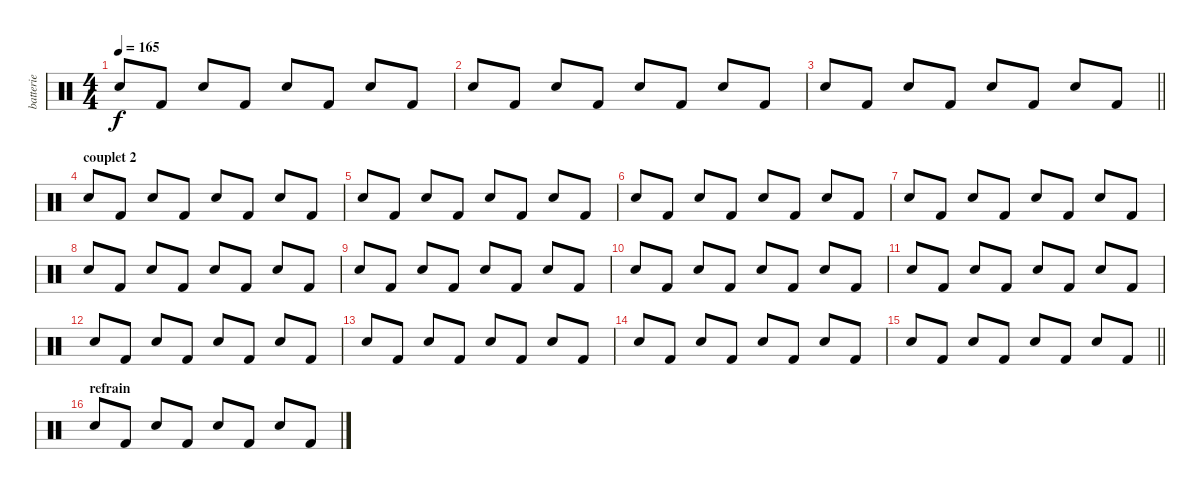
\track ("batterie" "batterie") {instrument percussion}
\staff {score}
\articulation defaults
\ts (4 4)
\tempo 165
\clef neutral
\ks c "Snare (hit) 2".8{dy f} "Kick (hit) 2".8 "Snare (hit) 2".8 "Kick (hit) 2".8 "Snare (hit) 2".8 "Kick (hit) 2".8 "Snare (hit) 2".8 "Kick (hit) 2".8
|
"Snare (hit) 2".8 "Kick (hit) 2".8 "Snare (hit) 2".8 "Kick (hit) 2".8 "Snare (hit) 2".8 "Kick (hit) 2".8 "Snare (hit) 2".8 "Kick (hit) 2".8 |
\barLineRight lightlight "Snare (hit) 2".8 "Kick (hit) 2".8 "Snare (hit) 2".8 "Kick (hit) 2".8 "Snare (hit) 2".8 "Kick (hit) 2".8 "Snare (hit) 2".8 "Kick (hit) 2".8
|
\section ("" "couplet 2")
"Snare (hit) 2".8 "Kick (hit) 2".8 "Snare (hit) 2".8 "Kick (hit) 2".8 "Snare (hit) 2".8 "Kick (hit) 2".8 "Snare (hit) 2".8 "Kick (hit) 2".8 |
"Snare (hit) 2".8 "Kick (hit) 2".8 "Snare (hit) 2".8 "Kick (hit) 2".8 "Snare (hit) 2".8 "Kick (hit) 2".8 "Snare (hit) 2".8 "Kick (hit) 2".8 |
"Snare (hit) 2".8 "Kick (hit) 2".8 "Snare (hit) 2".8 "Kick (hit) 2".8 "Snare (hit) 2".8 "Kick (hit) 2".8 "Snare (hit) 2".8 "Kick (hit) 2".8 |
"Snare (hit) 2".8 "Kick (hit) 2".8 "Snare (hit) 2".8 "Kick (hit) 2".8 "Snare (hit) 2".8 "Kick (hit) 2".8 "Snare (hit) 2".8 "Kick (hit) 2".8 |
"Snare (hit) 2".8 "Kick (hit) 2".8 "Snare (hit) 2".8 "Kick (hit) 2".8 "Snare (hit) 2".8 "Kick (hit) 2".8 "Snare (hit) 2".8 "Kick (hit) 2".8 |
"Snare (hit) 2".8 "Kick (hit) 2".8 "Snare (hit) 2".8 "Kick (hit) 2".8 "Snare (hit) 2".8 "Kick (hit) 2".8 "Snare (hit) 2".8 "Kick (hit) 2".8 |
"Snare (hit) 2".8 "Kick (hit) 2".8 "Snare (hit) 2".8 "Kick (hit) 2".8 "Snare (hit) 2".8 "Kick (hit) 2".8 "Snare (hit) 2".8 "Kick (hit) 2".8 |
"Snare (hit) 2".8 "Kick (hit) 2".8 "Snare (hit) 2".8 "Kick (hit) 2".8 "Snare (hit) 2".8 "Kick (hit) 2".8 "Snare (hit) 2".8 "Kick (hit) 2".8 |
"Snare (hit) 2".8 "Kick (hit) 2".8 "Snare (hit) 2".8 "Kick (hit) 2".8 "Snare (hit) 2".8 "Kick (hit) 2".8 "Snare (hit) 2".8 "Kick (hit) 2".8 |
"Snare (hit) 2".8 "Kick (hit) 2".8 "Snare (hit) 2".8 "Kick (hit) 2".8 "Snare (hit) 2".8 "Kick (hit) 2".8 "Snare (hit) 2".8 "Kick (hit) 2".8 |
"Snare (hit) 2".8 "Kick (hit) 2".8 "Snare (hit) 2".8 "Kick (hit) 2".8 "Snare (hit) 2".8 "Kick (hit) 2".8 "Snare (hit) 2".8 "Kick (hit) 2".8 |
\barLineRight lightlight "Snare (hit) 2".8 "Kick (hit) 2".8 "Snare (hit) 2".8 "Kick (hit) 2".8 "Snare (hit) 2".8 "Kick (hit) 2".8 "Snare (hit) 2".8 "Kick (hit) 2".8
|
\section ("" "refrain")
"Snare (hit) 2".8 "Kick (hit) 2".8 "Snare (hit) 2".8 "Kick (hit) 2".8 "Snare (hit) 2".8 "Kick (hit) 2".8 "Snare (hit) 2".8 "Kick (hit) 2".8
